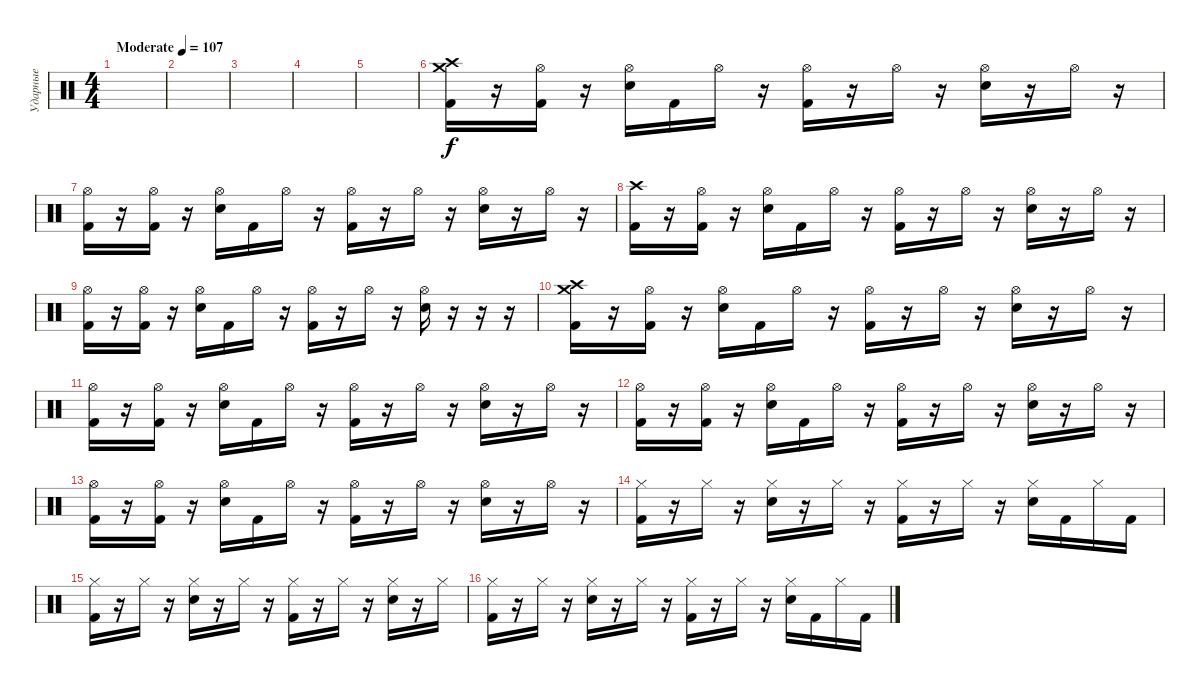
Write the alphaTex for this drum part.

\track ("Ударные" "Ударные") {instrument percussion}
\staff {score}
\articulation defaults
\ts (4 4)
\tempo (107 "Moderate")
\clef neutral
\ks c
|
|
|
|
|
("Kick (hit) 2" "Crash high (hit)" "Crash medium (hit)").16 r.16 ("Kick (hit) 2" "Hi-Hat (open)").16 r.16 ("Electric Snare (hit)" "Hi-Hat (open)").16 "Kick (hit) 2".16 "Hi-Hat (open)".16 r.16 ("Kick (hit) 2" "Hi-Hat (open)").16 r.16 "Hi-Hat (open)".16 r.16 ("Electric Snare (hit)" "Hi-Hat (open)").16 r.16 "Hi-Hat (open)".16 r.16 |
("Kick (hit) 2" "Hi-Hat (open)").16 r.16 ("Kick (hit) 2" "Hi-Hat (open)").16 r.16 ("Electric Snare (hit)" "Hi-Hat (open)").16 "Kick (hit) 2".16 "Hi-Hat (open)".16 r.16 ("Kick (hit) 2" "Hi-Hat (open)").16 r.16 "Hi-Hat (open)".16 r.16 ("Electric Snare (hit)" "Hi-Hat (open)").16 r.16 "Hi-Hat (open)".16 r.16 |
("Kick (hit) 2" "Crash high (hit)").16 r.16 ("Kick (hit) 2" "Hi-Hat (open)").16 r.16 ("Electric Snare (hit)" "Hi-Hat (open)").16 "Kick (hit) 2".16 "Hi-Hat (open)".16 r.16 ("Kick (hit) 2" "Hi-Hat (open)").16 r.16 "Hi-Hat (open)".16 r.16 ("Electric Snare (hit)" "Hi-Hat (open)").16 r.16 "Hi-Hat (open)".16 r.16 |
("Kick (hit) 2" "Hi-Hat (open)").16 r.16 ("Kick (hit) 2" "Hi-Hat (open)").16 r.16 ("Electric Snare (hit)" "Hi-Hat (open)").16 "Kick (hit) 2".16 "Hi-Hat (open)".16 r.16 ("Kick (hit) 2" "Hi-Hat (open)").16 r.16 "Hi-Hat (open)".16 r.16 ("Electric Snare (hit)" "Hi-Hat (open)").16 r.16 r.16 r.16 |
("Kick (hit) 2" "Crash high (hit)" "Crash medium (hit)").16 r.16 ("Kick (hit) 2" "Hi-Hat (open)").16 r.16 ("Electric Snare (hit)" "Hi-Hat (open)").16 "Kick (hit) 2".16 "Hi-Hat (open)".16 r.16 ("Kick (hit) 2" "Hi-Hat (open)").16 r.16 "Hi-Hat (open)".16 r.16 ("Electric Snare (hit)" "Hi-Hat (open)").16 r.16 "Hi-Hat (open)".16 r.16 |
("Kick (hit) 2" "Hi-Hat (open)").16 r.16 ("Kick (hit) 2" "Hi-Hat (open)").16 r.16 ("Electric Snare (hit)" "Hi-Hat (open)").16 "Kick (hit) 2".16 "Hi-Hat (open)".16 r.16 ("Kick (hit) 2" "Hi-Hat (open)").16 r.16 "Hi-Hat (open)".16 r.16 ("Electric Snare (hit)" "Hi-Hat (open)").16 r.16 "Hi-Hat (open)".16 r.16 |
("Kick (hit) 2" "Hi-Hat (open)").16 r.16 ("Kick (hit) 2" "Hi-Hat (open)").16 r.16 ("Electric Snare (hit)" "Hi-Hat (open)").16 "Kick (hit) 2".16 "Hi-Hat (open)".16 r.16 ("Kick (hit) 2" "Hi-Hat (open)").16 r.16 "Hi-Hat (open)".16 r.16 ("Electric Snare (hit)" "Hi-Hat (open)").16 r.16 "Hi-Hat (open)".16 r.16 |
("Kick (hit) 2" "Hi-Hat (open)").16 r.16 ("Kick (hit) 2" "Hi-Hat (open)").16 r.16 ("Electric Snare (hit)" "Hi-Hat (open)").16 "Kick (hit) 2".16 "Hi-Hat (open)".16 r.16 ("Kick (hit) 2" "Hi-Hat (open)").16 r.16 "Hi-Hat (open)".16 r.16 ("Electric Snare (hit)" "Hi-Hat (open)").16 r.16 "Hi-Hat (open)".16 r.16 |
("Hi-Hat (closed)" "Kick (hit) 2").16 r.16 "Hi-Hat (closed)".16 r.16 ("Electric Snare (hit)" "Hi-Hat (closed)").16 r.16 "Hi-Hat (closed)".16 r.16 ("Hi-Hat (closed)" "Kick (hit) 2").16 r.16 "Hi-Hat (closed)".16 r.16 ("Electric Snare (hit)" "Hi-Hat (closed)").16 "Kick (hit) 2".16 "Hi-Hat (closed)".16 "Kick (hit) 2".16 |
("Hi-Hat (closed)" "Kick (hit) 2").16 r.16 "Hi-Hat (closed)".16 r.16 ("Electric Snare (hit)" "Hi-Hat (closed)").16 r.16 "Hi-Hat (closed)".16 r.16 ("Hi-Hat (closed)" "Kick (hit) 2").16 r.16 "Hi-Hat (closed)".16 r.16 ("Electric Snare (hit)" "Hi-Hat (closed)").16 r.16 "Hi-Hat (closed)".16 |
("Hi-Hat (closed)" "Kick (hit) 2").16 r.16 "Hi-Hat (closed)".16 r.16 ("Electric Snare (hit)" "Hi-Hat (closed)").16 r.16 "Hi-Hat (closed)".16 r.16 ("Hi-Hat (closed)" "Kick (hit) 2").16 r.16 "Hi-Hat (closed)".16 r.16 ("Electric Snare (hit)" "Hi-Hat (closed)").16 "Kick (hit) 2".16 "Hi-Hat (closed)".16 "Kick (hit) 2".16
